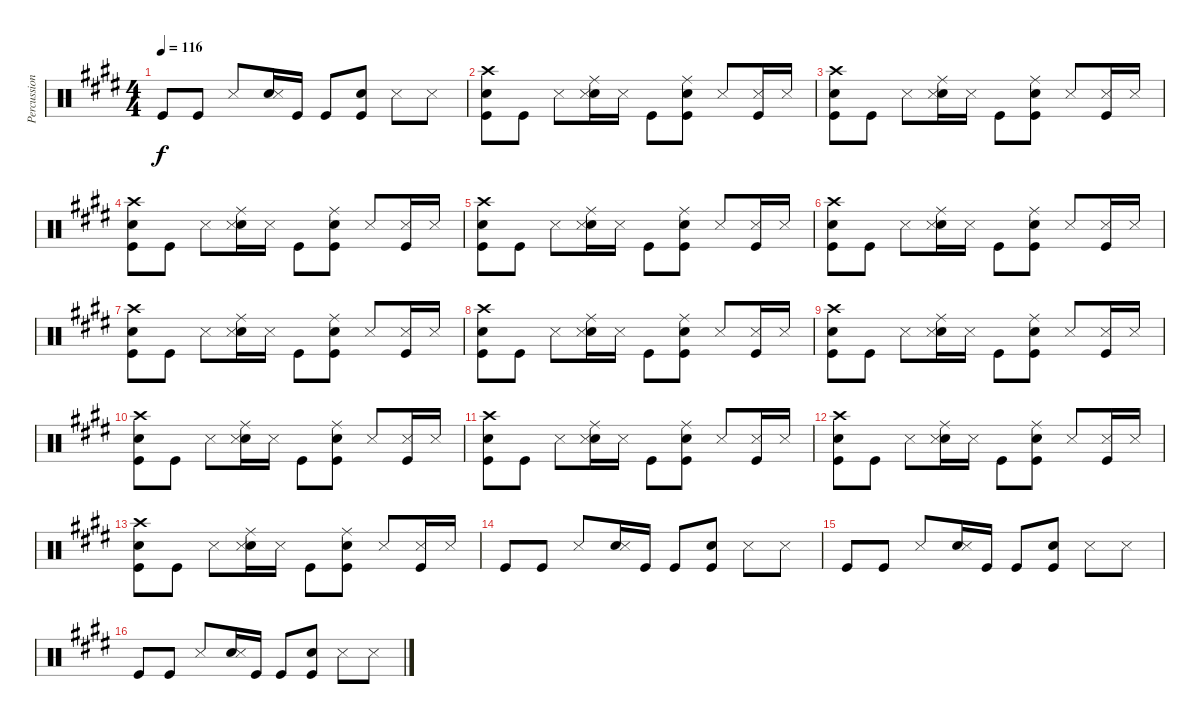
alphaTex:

\track ("Percussion" "Percussion") {instrument percussion}
\staff {score}
\articulation defaults
\ts (4 4)
\tempo 116
\clef neutral
\ks e "Kick (hit)".8{dy f} "Kick (hit)".8 "Snare (side stick) 3".8
("Electric Snare (hit)" "Snare (side stick) 3").16 "Kick (hit)".16 "Kick (hit)".8 ("Electric Snare (hit)" "Kick (hit)").8 "Snare (side stick) 3".8 "Snare (side stick) 3".8 |
("Crash high (hit)" "Electric Snare (hit)" "Kick (hit)").8 "Kick (hit)".8 "Snare (side stick) 3".8 ("Ride (middle)" "Electric Snare (hit)" "Snare (side stick) 3").16 "Snare (side stick) 3".16 "Kick (hit)".8 ("Ride (middle)" "Electric Snare (hit)" "Kick (hit)").8 "Snare (side stick) 3".8 ("Snare (side stick) 3" "Kick (hit)").16 "Snare (side stick) 3".16 |
("Crash high (hit)" "Electric Snare (hit)" "Kick (hit)").8 "Kick (hit)".8 "Snare (side stick) 3".8 ("Ride (middle)" "Electric Snare (hit)" "Snare (side stick) 3").16 "Snare (side stick) 3".16 "Kick (hit)".8 ("Ride (middle)" "Electric Snare (hit)" "Kick (hit)").8 "Snare (side stick) 3".8 ("Snare (side stick) 3" "Kick (hit)").16 "Snare (side stick) 3".16 |
("Crash high (hit)" "Electric Snare (hit)" "Kick (hit)").8 "Kick (hit)".8 "Snare (side stick) 3".8 ("Ride (middle)" "Electric Snare (hit)" "Snare (side stick) 3").16 "Snare (side stick) 3".16 "Kick (hit)".8 ("Ride (middle)" "Electric Snare (hit)" "Kick (hit)").8 "Snare (side stick) 3".8 ("Snare (side stick) 3" "Kick (hit)").16 "Snare (side stick) 3".16 |
("Crash high (hit)" "Electric Snare (hit)" "Kick (hit)").8 "Kick (hit)".8 "Snare (side stick) 3".8 ("Ride (middle)" "Electric Snare (hit)" "Snare (side stick) 3").16 "Snare (side stick) 3".16 "Kick (hit)".8 ("Ride (middle)" "Electric Snare (hit)" "Kick (hit)").8 "Snare (side stick) 3".8 ("Snare (side stick) 3" "Kick (hit)").16 "Snare (side stick) 3".16 |
("Crash high (hit)" "Electric Snare (hit)" "Kick (hit)").8 "Kick (hit)".8 "Snare (side stick) 3".8 ("Ride (middle)" "Electric Snare (hit)" "Snare (side stick) 3").16 "Snare (side stick) 3".16 "Kick (hit)".8 ("Ride (middle)" "Electric Snare (hit)" "Kick (hit)").8 "Snare (side stick) 3".8 ("Snare (side stick) 3" "Kick (hit)").16 "Snare (side stick) 3".16 |
("Crash high (hit)" "Electric Snare (hit)" "Kick (hit)").8 "Kick (hit)".8 "Snare (side stick) 3".8 ("Ride (middle)" "Electric Snare (hit)" "Snare (side stick) 3").16 "Snare (side stick) 3".16 "Kick (hit)".8 ("Ride (middle)" "Electric Snare (hit)" "Kick (hit)").8 "Snare (side stick) 3".8 ("Snare (side stick) 3" "Kick (hit)").16 "Snare (side stick) 3".16 |
("Crash high (hit)" "Electric Snare (hit)" "Kick (hit)").8 "Kick (hit)".8 "Snare (side stick) 3".8 ("Ride (middle)" "Electric Snare (hit)" "Snare (side stick) 3").16 "Snare (side stick) 3".16 "Kick (hit)".8 ("Ride (middle)" "Electric Snare (hit)" "Kick (hit)").8 "Snare (side stick) 3".8 ("Snare (side stick) 3" "Kick (hit)").16 "Snare (side stick) 3".16 |
("Crash high (hit)" "Electric Snare (hit)" "Kick (hit)").8 "Kick (hit)".8 "Snare (side stick) 3".8 ("Ride (middle)" "Electric Snare (hit)" "Snare (side stick) 3").16 "Snare (side stick) 3".16 "Kick (hit)".8 ("Ride (middle)" "Electric Snare (hit)" "Kick (hit)").8 "Snare (side stick) 3".8 ("Snare (side stick) 3" "Kick (hit)").16 "Snare (side stick) 3".16 |
("Crash high (hit)" "Electric Snare (hit)" "Kick (hit)").8 "Kick (hit)".8 "Snare (side stick) 3".8 ("Ride (middle)" "Electric Snare (hit)" "Snare (side stick) 3").16 "Snare (side stick) 3".16 "Kick (hit)".8 ("Ride (middle)" "Electric Snare (hit)" "Kick (hit)").8 "Snare (side stick) 3".8 ("Snare (side stick) 3" "Kick (hit)").16 "Snare (side stick) 3".16 |
("Crash high (hit)" "Electric Snare (hit)" "Kick (hit)").8 "Kick (hit)".8 "Snare (side stick) 3".8 ("Ride (middle)" "Electric Snare (hit)" "Snare (side stick) 3").16 "Snare (side stick) 3".16 "Kick (hit)".8 ("Ride (middle)" "Electric Snare (hit)" "Kick (hit)").8 "Snare (side stick) 3".8 ("Snare (side stick) 3" "Kick (hit)").16 "Snare (side stick) 3".16 |
("Crash high (hit)" "Electric Snare (hit)" "Kick (hit)").8 "Kick (hit)".8 "Snare (side stick) 3".8 ("Ride (middle)" "Electric Snare (hit)" "Snare (side stick) 3").16 "Snare (side stick) 3".16 "Kick (hit)".8 ("Ride (middle)" "Electric Snare (hit)" "Kick (hit)").8 "Snare (side stick) 3".8 ("Snare (side stick) 3" "Kick (hit)").16 "Snare (side stick) 3".16 |
("Crash high (hit)" "Electric Snare (hit)" "Kick (hit)").8 "Kick (hit)".8 "Snare (side stick) 3".8 ("Ride (middle)" "Electric Snare (hit)" "Snare (side stick) 3").16 "Snare (side stick) 3".16 "Kick (hit)".8 ("Ride (middle)" "Electric Snare (hit)" "Kick (hit)").8 "Snare (side stick) 3".8 ("Snare (side stick) 3" "Kick (hit)").16 "Snare (side stick) 3".16 |
"Kick (hit)".8 "Kick (hit)".8 "Snare (side stick) 3".8 ("Electric Snare (hit)" "Snare (side stick) 3").16 "Kick (hit)".16 "Kick (hit)".8 ("Electric Snare (hit)" "Kick (hit)").8 "Snare (side stick) 3".8 "Snare (side stick) 3".8 |
"Kick (hit)".8 "Kick (hit)".8 "Snare (side stick) 3".8 ("Electric Snare (hit)" "Snare (side stick) 3").16 "Kick (hit)".16 "Kick (hit)".8 ("Electric Snare (hit)" "Kick (hit)").8 "Snare (side stick) 3".8 "Snare (side stick) 3".8 |
"Kick (hit)".8 "Kick (hit)".8 "Snare (side stick) 3".8 ("Electric Snare (hit)" "Snare (side stick) 3").16 "Kick (hit)".16 "Kick (hit)".8 ("Electric Snare (hit)" "Kick (hit)").8 "Snare (side stick) 3".8 "Snare (side stick) 3".8
